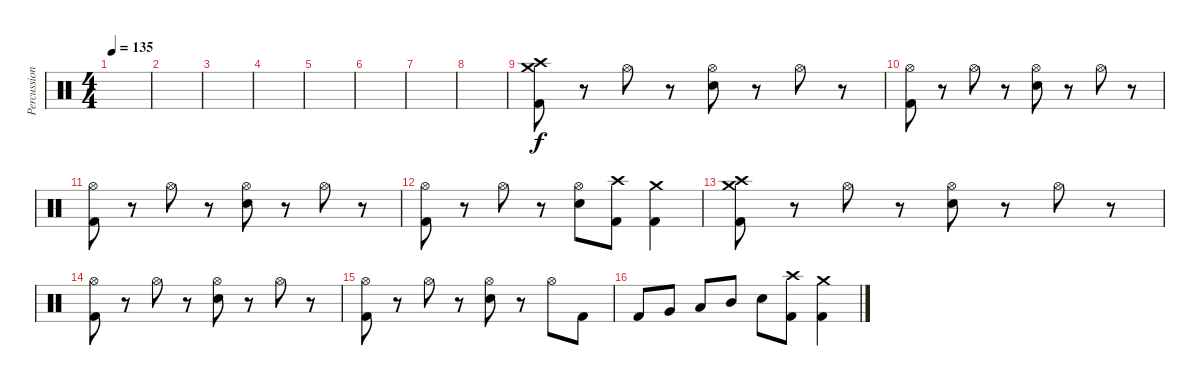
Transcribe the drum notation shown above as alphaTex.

\track ("Percussion" "Percussion") {instrument percussion}
\staff {score}
\articulation defaults
\ts (4 4)
\tempo 135
\clef neutral
\ks c
|
|
|
|
|
|
|
|
("Kick (hit) 2" "Crash medium (hit)" "Crash high (hit)").8 r.8 "Hi-Hat (open)".8 r.8 ("Electric Snare (hit)" "Hi-Hat (open)").8 r.8 "Hi-Hat (open)".8 r.8 |
("Kick (hit) 2" "Hi-Hat (open)").8 r.8 "Hi-Hat (open)".8 r.8 ("Electric Snare (hit)" "Hi-Hat (open)").8 r.8 "Hi-Hat (open)".8 r.8 |
("Kick (hit) 2" "Hi-Hat (open)").8 r.8 "Hi-Hat (open)".8 r.8 ("Electric Snare (hit)" "Hi-Hat (open)").8 r.8 "Hi-Hat (open)".8 r.8 |
("Kick (hit) 2" "Hi-Hat (open)").8 r.8 "Hi-Hat (open)".8 r.8 ("Electric Snare (hit)" "Hi-Hat (open)").8 ("Kick (hit) 2" "Crash high (hit)").8 ("Kick (hit) 2" "Crash medium (hit)").4 |
("Kick (hit) 2" "Crash medium (hit)" "Crash high (hit)").8 r.8 "Hi-Hat (open)".8 r.8 ("Electric Snare (hit)" "Hi-Hat (open)").8 r.8 "Hi-Hat (open)".8 r.8 |
("Kick (hit) 2" "Hi-Hat (open)").8 r.8 "Hi-Hat (open)".8 r.8 ("Electric Snare (hit)" "Hi-Hat (open)").8 r.8 "Hi-Hat (open)".8 r.8 |
("Kick (hit) 2" "Hi-Hat (open)").8 r.8 "Hi-Hat (open)".8 r.8 ("Electric Snare (hit)" "Hi-Hat (open)").8 r.8 "Hi-Hat (open)".8 "Kick (hit) 2".8 |
"Kick (hit) 2".8 "Very Low Tom (hit)".8 "Low Tom (hit)".8 "Mid Tom (hit)".8 "Electric Snare (hit)".8 ("Kick (hit) 2" "Crash high (hit)").8 ("Kick (hit) 2" "Crash medium (hit)").4
